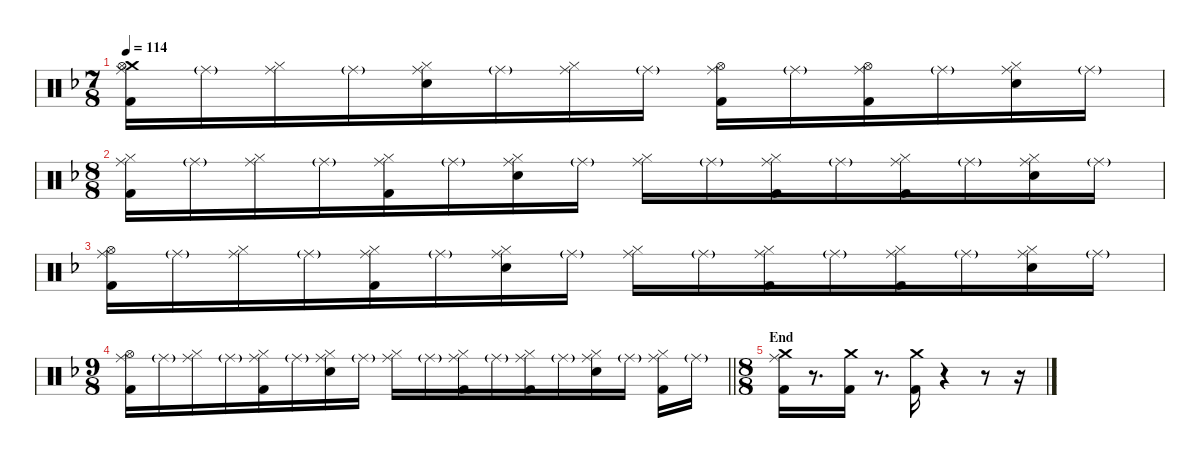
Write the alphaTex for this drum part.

\defaultSystemsLayout 4
\hideDynamics
\bracketExtendMode nobrackets
\singleTrackTrackNamePolicy hidden
\multiTrackTrackNamePolicy hidden
\firstSystemTrackNameMode fullname
\otherSystemsTrackNameOrientation horizontal
\track ("Drums" "drm.") {instrument percussion}
\staff {score}
\articulation defaults
\ts (7 8)
\beaming (8 4 4 4 4)
\tempo 114
\clef neutral
\ks dminor
("Crash medium (hit)"{acc forcenatural} "Ride (middle)"{acc forcenatural} "Hi-Hat (open)"{acc forcenatural} "Kick (hit) 2"{acc forcenatural}).16{dy f beam Down} "Ride (middle)"{g acc forcenatural}.16{dy mf beam Down} ("Ride (middle)"{acc forcenatural} "Hi-Hat (closed)"{acc forcenatural}).16{dy f beam Down} "Ride (middle)"{g acc forcenatural}.16{dy mf beam Down} ("Ride (middle)"{acc forcenatural} "Hi-Hat (closed)"{acc forcenatural} "Snare (hit) 2"{acc forcenatural}).16{dy f beam Down} "Ride (middle)"{g acc forcenatural}.16{dy mf beam Down} ("Ride (middle)"{acc forcenatural} "Hi-Hat (closed)"{acc forcenatural}).16{dy f beam Down} "Ride (middle)"{g acc forcenatural}.16{dy mf beam Down} ("Ride (middle)"{acc forcenatural} "Hi-Hat (open)"{acc forcenatural} "Kick (hit) 2"{acc forcenatural}).16{dy f beam Down} "Ride (middle)"{g acc forcenatural}.16{dy mf beam Down} ("Ride (middle)"{acc forcenatural} "Hi-Hat (open)"{acc forcenatural} "Kick (hit) 2"{acc forcenatural}).16{dy f beam Down} "Ride (middle)"{g acc forcenatural}.16{dy mf beam Down} ("Ride (middle)"{acc forcenatural} "Hi-Hat (closed)"{acc forcenatural} "Snare (hit) 2"{acc forcenatural}).16{dy f beam Down} "Ride (middle)"{g acc forcenatural}.16{dy mf beam Down} |
\ts (8 8)
\beaming (8 4 4 4 4)
("Ride (middle)"{acc forcenatural} "Hi-Hat (closed)"{acc forcenatural} "Kick (hit) 2"{acc forcenatural}).16{dy f beam Down} "Ride (middle)"{g acc forcenatural}.16{dy mf beam Down} ("Ride (middle)"{acc forcenatural} "Hi-Hat (closed)"{acc forcenatural}).16{dy f beam Down} "Ride (middle)"{g acc forcenatural}.16{dy mf beam Down} ("Ride (middle)"{acc forcenatural} "Hi-Hat (closed)"{acc forcenatural} "Kick (hit) 2"{acc forcenatural}).16{dy f beam Down} "Ride (middle)"{g acc forcenatural}.16{dy mf beam Down} ("Ride (middle)"{acc forcenatural} "Hi-Hat (closed)"{acc forcenatural} "Snare (hit) 2"{acc forcenatural}).16{dy f beam Down} "Ride (middle)"{g acc forcenatural}.16{dy mf beam Down} ("Ride (middle)"{acc forcenatural} "Hi-Hat (closed)"{acc forcenatural}).16{dy f beam Down} "Ride (middle)"{g acc forcenatural}.16{dy mf beam Down} ("Ride (middle)"{acc forcenatural} "Hi-Hat (closed)"{acc forcenatural} "Kick (hit) 2"{acc forcenatural}).16{dy f beam Down} "Ride (middle)"{g acc forcenatural}.16{dy mf beam Down} ("Ride (middle)"{acc forcenatural} "Hi-Hat (closed)"{acc forcenatural} "Kick (hit) 2"{acc forcenatural}).16{dy f beam Down} "Ride (middle)"{g acc forcenatural}.16{dy mf beam Down} ("Ride (middle)"{acc forcenatural} "Hi-Hat (closed)"{acc forcenatural} "Snare (hit) 2"{acc forcenatural}).16{dy f beam Down} "Ride (middle)"{g acc forcenatural}.16{dy mf beam Down} |
("Ride (middle)"{acc forcenatural} "Hi-Hat (open)"{acc forcenatural} "Kick (hit) 2"{acc forcenatural}).16{dy f beam Down} "Ride (middle)"{g acc forcenatural}.16{dy mf beam Down} ("Ride (middle)"{acc forcenatural} "Hi-Hat (closed)"{acc forcenatural}).16{dy f beam Down} "Ride (middle)"{g acc forcenatural}.16{dy mf beam Down} ("Ride (middle)"{acc forcenatural} "Hi-Hat (closed)"{acc forcenatural} "Kick (hit) 2"{acc forcenatural}).16{dy f beam Down} "Ride (middle)"{g acc forcenatural}.16{dy mf beam Down} ("Ride (middle)"{acc forcenatural} "Hi-Hat (closed)"{acc forcenatural} "Snare (hit) 2"{acc forcenatural}).16{dy f beam Down} "Ride (middle)"{g acc forcenatural}.16{dy mf beam Down} ("Ride (middle)"{acc forcenatural} "Hi-Hat (closed)"{acc forcenatural}).16{dy f beam Down} "Ride (middle)"{g acc forcenatural}.16{dy mf beam Down} ("Ride (middle)"{acc forcenatural} "Hi-Hat (closed)"{acc forcenatural} "Kick (hit) 2"{acc forcenatural}).16{dy f beam Down} "Ride (middle)"{g acc forcenatural}.16{dy mf beam Down} ("Ride (middle)"{acc forcenatural} "Hi-Hat (closed)"{acc forcenatural} "Kick (hit) 2"{acc forcenatural}).16{dy f beam Down} "Ride (middle)"{g acc forcenatural}.16{dy mf beam Down} ("Ride (middle)"{acc forcenatural} "Hi-Hat (closed)"{acc forcenatural} "Snare (hit) 2"{acc forcenatural}).16{dy f beam Down} "Ride (middle)"{g acc forcenatural}.16{dy mf beam Down} |
\ts (9 8)
\beaming (8 4 4 4 4)
\barLineRight lightlight
("Ride (middle)"{acc forcenatural} "Hi-Hat (open)"{acc forcenatural} "Kick (hit) 2"{acc forcenatural}).16{dy f beam Down} "Ride (middle)"{g acc forcenatural}.16{dy mf beam Down} ("Ride (middle)"{acc forcenatural} "Hi-Hat (closed)"{acc forcenatural}).16{dy f beam Down} "Ride (middle)"{g acc forcenatural}.16{dy mf beam Down} ("Ride (middle)"{acc forcenatural} "Hi-Hat (closed)"{acc forcenatural} "Kick (hit) 2"{acc forcenatural}).16{dy f beam Down} "Ride (middle)"{g acc forcenatural}.16{dy mf beam Down} ("Ride (middle)"{acc forcenatural} "Hi-Hat (closed)"{acc forcenatural} "Snare (hit) 2"{acc forcenatural}).16{dy f beam Down} "Ride (middle)"{g acc forcenatural}.16{dy mf beam Down} ("Ride (middle)"{acc forcenatural} "Hi-Hat (closed)"{acc forcenatural}).16{dy f beam Down} "Ride (middle)"{g acc forcenatural}.16{dy mf beam Down} ("Ride (middle)"{acc forcenatural} "Hi-Hat (closed)"{acc forcenatural} "Kick (hit) 2"{acc forcenatural}).16{dy f beam Down} "Ride (middle)"{g acc forcenatural}.16{dy mf beam Down} ("Ride (middle)"{acc forcenatural} "Hi-Hat (closed)"{acc forcenatural} "Kick (hit) 2"{acc forcenatural}).16{dy f beam Down} "Ride (middle)"{g acc forcenatural}.16{dy mf beam Down} ("Ride (middle)"{acc forcenatural} "Hi-Hat (closed)"{acc forcenatural} "Snare (hit) 2"{acc forcenatural}).16{dy f beam Down} "Ride (middle)"{g acc forcenatural}.16{dy mf beam Down} ("Ride (middle)"{acc forcenatural} "Hi-Hat (closed)"{acc forcenatural} "Kick (hit) 2"{acc forcenatural}).16{dy f beam Down} "Ride (middle)"{g acc forcenatural}.16{dy mf beam Down} |
\ts (8 8)
\beaming (8 4 4 4 4)
\section ("" "End")
("Crash medium (hit)"{acc forcenatural} "Ride (middle)"{acc forcenatural} "Kick (hit) 2"{acc forcenatural}).16{dy f beam Down} r.8{d beam Down} ("Crash medium (hit)"{acc forcenatural} "Kick (hit) 2"{acc forcenatural}).16{beam Down} r.8{d beam Down} ("Crash medium (hit)"{acc forcenatural} "Kick (hit) 2"{acc forcenatural}).16{beam Down} r.4{beam Down} r.8{beam Down} r.16{beam Down}
